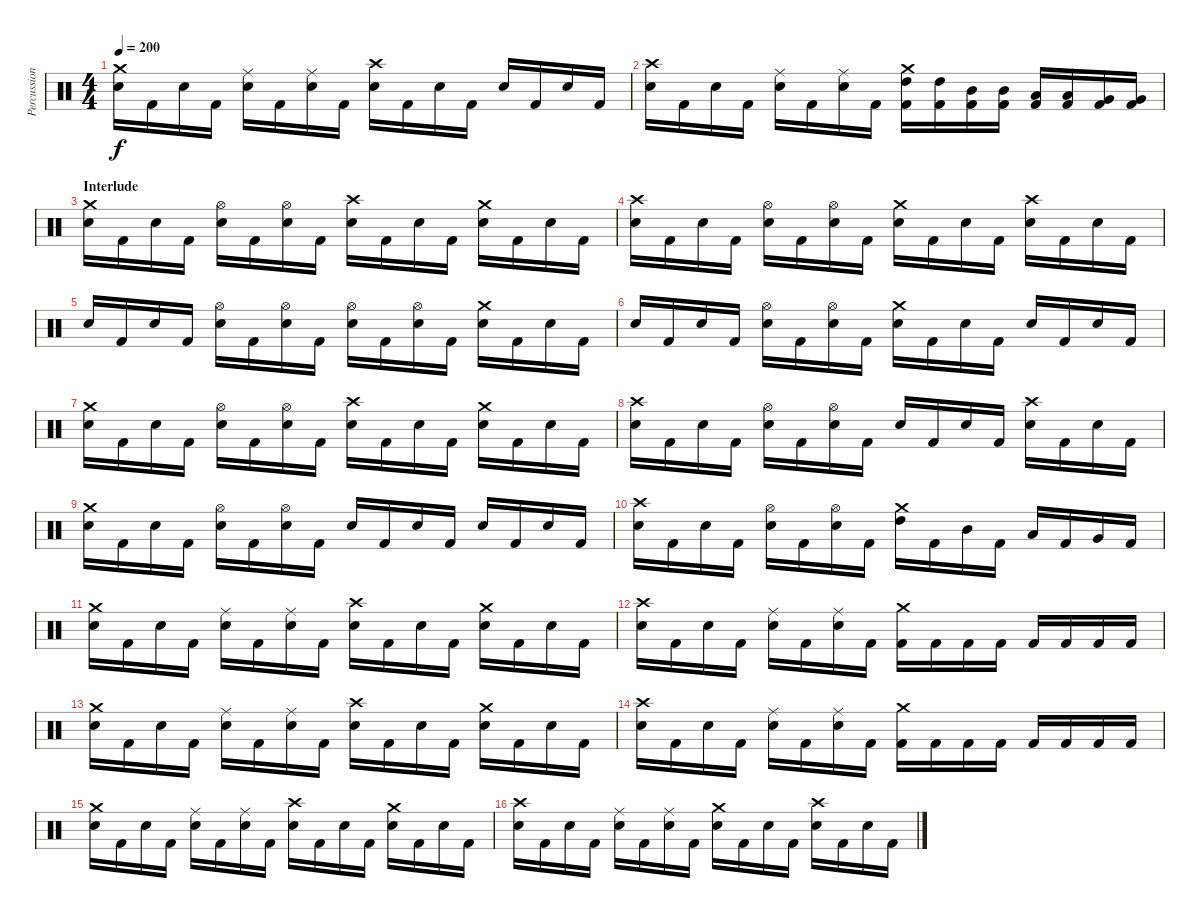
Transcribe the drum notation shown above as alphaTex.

\track ("Percussion" "Percussion") {instrument percussion}
\staff {score}
\articulation defaults
\ts (4 4)
\tempo 200
\clef neutral
\ks c
("Snare (hit) 2" "Crash medium (hit)").16{dy f} "Kick (hit) 2".16 "Snare (hit) 2".16 "Kick (hit) 2".16 ("Snare (hit) 2" "Ride (middle)").16 "Kick (hit) 2".16 ("Snare (hit) 2" "Ride (middle)").16 "Kick (hit) 2".16 ("Snare (hit) 2" "Crash high (hit)").16 "Kick (hit) 2".16 "Snare (hit) 2".16 "Kick (hit) 2".16 "Snare (hit) 2".16 "Kick (hit) 2".16 "Snare (hit) 2".16 "Kick (hit) 2".16 |
("Snare (hit) 2" "Crash high (hit)").16 "Kick (hit) 2".16 "Snare (hit) 2".16 "Kick (hit) 2".16 ("Snare (hit) 2" "Ride (middle)").16 "Kick (hit) 2".16 ("Snare (hit) 2" "Ride (middle)").16 "Kick (hit) 2".16 ("Kick (hit) 2" "High Tom (hit)" "Crash medium (hit)").16 ("Kick (hit) 2" "High Tom (hit)").16 ("Kick (hit) 2" "Mid Tom (hit)").16 ("Kick (hit) 2" "Mid Tom (hit)").16 ("Kick (hit) 2" "Low Tom (hit)").16 ("Kick (hit) 2" "Low Tom (hit)").16 ("Kick (hit) 2" "Very Low Tom (hit)").16 ("Kick (hit) 2" "Very Low Tom (hit)").16 |
\section ("" "Interlude")
("Snare (hit) 2" "Crash medium (hit)").16 "Kick (hit) 2".16 "Snare (hit) 2".16 "Kick (hit) 2".16 ("Snare (hit) 2" "Hi-Hat (open)").16 "Kick (hit) 2".16 ("Snare (hit) 2" "Hi-Hat (open)").16 "Kick (hit) 2".16 ("Snare (hit) 2" "Crash high (hit)").16 "Kick (hit) 2".16 "Snare (hit) 2".16 "Kick (hit) 2".16 ("Snare (hit) 2" "Crash medium (hit)").16 "Kick (hit) 2".16 "Snare (hit) 2".16 "Kick (hit) 2".16 |
("Snare (hit) 2" "Crash high (hit)").16 "Kick (hit) 2".16 "Snare (hit) 2".16 "Kick (hit) 2".16 ("Snare (hit) 2" "Hi-Hat (open)").16 "Kick (hit) 2".16 ("Snare (hit) 2" "Hi-Hat (open)").16 "Kick (hit) 2".16 ("Snare (hit) 2" "Crash medium (hit)").16 "Kick (hit) 2".16 "Snare (hit) 2".16 "Kick (hit) 2".16 ("Snare (hit) 2" "Crash high (hit)").16 "Kick (hit) 2".16 "Snare (hit) 2".16 "Kick (hit) 2".16 |
"Snare (hit) 2".16 "Kick (hit) 2".16 "Snare (hit) 2".16 "Kick (hit) 2".16 ("Snare (hit) 2" "Hi-Hat (open)").16 "Kick (hit) 2".16 ("Snare (hit) 2" "Hi-Hat (open)").16 "Kick (hit) 2".16 ("Snare (hit) 2" "Hi-Hat (open)").16 "Kick (hit) 2".16 ("Snare (hit) 2" "Hi-Hat (open)").16 "Kick (hit) 2".16 ("Snare (hit) 2" "Crash medium (hit)").16 "Kick (hit) 2".16 "Snare (hit) 2".16 "Kick (hit) 2".16 |
"Snare (hit) 2".16 "Kick (hit) 2".16 "Snare (hit) 2".16 "Kick (hit) 2".16 ("Snare (hit) 2" "Hi-Hat (open)").16 "Kick (hit) 2".16 ("Snare (hit) 2" "Hi-Hat (open)").16 "Kick (hit) 2".16 ("Snare (hit) 2" "Crash medium (hit)").16 "Kick (hit) 2".16 "Snare (hit) 2".16 "Kick (hit) 2".16 "Snare (hit) 2".16 "Kick (hit) 2".16 "Snare (hit) 2".16 "Kick (hit) 2".16 |
("Snare (hit) 2" "Crash medium (hit)").16 "Kick (hit) 2".16 "Snare (hit) 2".16 "Kick (hit) 2".16 ("Snare (hit) 2" "Hi-Hat (open)").16 "Kick (hit) 2".16 ("Snare (hit) 2" "Hi-Hat (open)").16 "Kick (hit) 2".16 ("Snare (hit) 2" "Crash high (hit)").16 "Kick (hit) 2".16 "Snare (hit) 2".16 "Kick (hit) 2".16 ("Snare (hit) 2" "Crash medium (hit)").16 "Kick (hit) 2".16 "Snare (hit) 2".16 "Kick (hit) 2".16 |
("Snare (hit) 2" "Crash high (hit)").16 "Kick (hit) 2".16 "Snare (hit) 2".16 "Kick (hit) 2".16 ("Snare (hit) 2" "Hi-Hat (open)").16 "Kick (hit) 2".16 ("Snare (hit) 2" "Hi-Hat (open)").16 "Kick (hit) 2".16 "Snare (hit) 2".16 "Kick (hit) 2".16 "Snare (hit) 2".16 "Kick (hit) 2".16 ("Snare (hit) 2" "Crash high (hit)").16 "Kick (hit) 2".16 "Snare (hit) 2".16 "Kick (hit) 2".16 |
("Snare (hit) 2" "Crash medium (hit)").16 "Kick (hit) 2".16 "Snare (hit) 2".16 "Kick (hit) 2".16 ("Snare (hit) 2" "Hi-Hat (open)").16 "Kick (hit) 2".16 ("Snare (hit) 2" "Hi-Hat (open)").16 "Kick (hit) 2".16 "Snare (hit) 2".16 "Kick (hit) 2".16 "Snare (hit) 2".16 "Kick (hit) 2".16 "Snare (hit) 2".16 "Kick (hit) 2".16 "Snare (hit) 2".16 "Kick (hit) 2".16 |
("Snare (hit) 2" "Crash high (hit)").16 "Kick (hit) 2".16 "Snare (hit) 2".16 "Kick (hit) 2".16 ("Snare (hit) 2" "Hi-Hat (open)").16 "Kick (hit) 2".16 ("Snare (hit) 2" "Hi-Hat (open)").16 "Kick (hit) 2".16 ("High Tom (hit)" "Crash medium (hit)").16 "Kick (hit) 2".16 "Mid Tom (hit)".16 "Kick (hit) 2".16 "Low Tom (hit)".16 "Kick (hit) 2".16 "Very Low Tom (hit)".16 "Kick (hit) 2".16 |
("Snare (hit) 2" "Crash medium (hit)").16 "Kick (hit) 2".16 "Snare (hit) 2".16 "Kick (hit) 2".16 ("Snare (hit) 2" "Ride (middle)").16 "Kick (hit) 2".16 ("Snare (hit) 2" "Ride (middle)").16 "Kick (hit) 2".16 ("Snare (hit) 2" "Crash high (hit)").16 "Kick (hit) 2".16 "Snare (hit) 2".16 "Kick (hit) 2".16 ("Snare (hit) 2" "Crash medium (hit)").16 "Kick (hit) 2".16 "Snare (hit) 2".16 "Kick (hit) 2".16 |
("Snare (hit) 2" "Crash high (hit)").16 "Kick (hit) 2".16 "Snare (hit) 2".16 "Kick (hit) 2".16 ("Snare (hit) 2" "Ride (middle)").16 "Kick (hit) 2".16 ("Snare (hit) 2" "Ride (middle)").16 "Kick (hit) 2".16 ("Kick (hit) 2" "Crash medium (hit)").16 "Kick (hit) 2".16 "Kick (hit) 2".16 "Kick (hit) 2".16 "Kick (hit) 2".16 "Kick (hit) 2".16 "Kick (hit) 2".16 "Kick (hit) 2".16 |
("Snare (hit) 2" "Crash medium (hit)").16 "Kick (hit) 2".16 "Snare (hit) 2".16 "Kick (hit) 2".16 ("Snare (hit) 2" "Ride (middle)").16 "Kick (hit) 2".16 ("Snare (hit) 2" "Ride (middle)").16 "Kick (hit) 2".16 ("Snare (hit) 2" "Crash high (hit)").16 "Kick (hit) 2".16 "Snare (hit) 2".16 "Kick (hit) 2".16 ("Snare (hit) 2" "Crash medium (hit)").16 "Kick (hit) 2".16 "Snare (hit) 2".16 "Kick (hit) 2".16 |
("Snare (hit) 2" "Crash high (hit)").16 "Kick (hit) 2".16 "Snare (hit) 2".16 "Kick (hit) 2".16 ("Snare (hit) 2" "Ride (middle)").16 "Kick (hit) 2".16 ("Snare (hit) 2" "Ride (middle)").16 "Kick (hit) 2".16 ("Kick (hit) 2" "Crash medium (hit)").16 "Kick (hit) 2".16 "Kick (hit) 2".16 "Kick (hit) 2".16 "Kick (hit) 2".16 "Kick (hit) 2".16 "Kick (hit) 2".16 "Kick (hit) 2".16 |
("Snare (hit) 2" "Crash medium (hit)").16 "Kick (hit) 2".16 "Snare (hit) 2".16 "Kick (hit) 2".16 ("Snare (hit) 2" "Ride (middle)").16 "Kick (hit) 2".16 ("Snare (hit) 2" "Ride (middle)").16 "Kick (hit) 2".16 ("Snare (hit) 2" "Crash high (hit)").16 "Kick (hit) 2".16 "Snare (hit) 2".16 "Kick (hit) 2".16 ("Snare (hit) 2" "Crash medium (hit)").16 "Kick (hit) 2".16 "Snare (hit) 2".16 "Kick (hit) 2".16 |
("Snare (hit) 2" "Crash high (hit)").16 "Kick (hit) 2".16 "Snare (hit) 2".16 "Kick (hit) 2".16 ("Snare (hit) 2" "Ride (middle)").16 "Kick (hit) 2".16 ("Snare (hit) 2" "Ride (middle)").16 "Kick (hit) 2".16 ("Snare (hit) 2" "Crash medium (hit)").16 "Kick (hit) 2".16 "Snare (hit) 2".16 "Kick (hit) 2".16 ("Snare (hit) 2" "Crash high (hit)").16 "Kick (hit) 2".16 "Snare (hit) 2".16 "Kick (hit) 2".16
